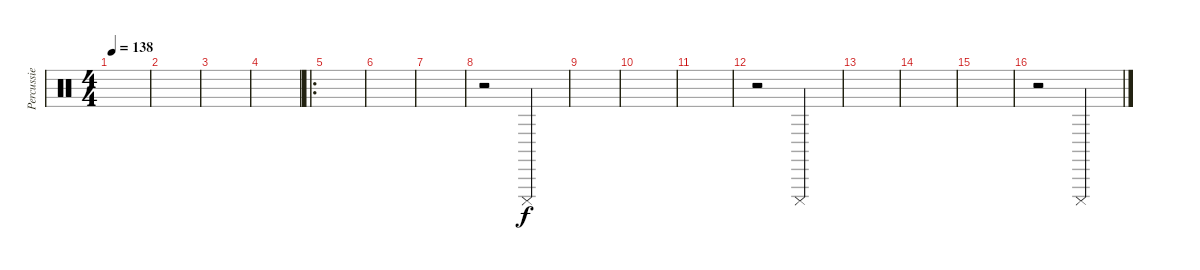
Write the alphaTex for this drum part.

\track ("Percussie" "Percussie") {instrument percussion}
\staff {score}
\articulation defaults
\ts (4 4)
\tempo 138
\clef neutral
\ks c
|
|
|
|
\ro
|
|
|
r.2 "Cuica (mute)".2 |
|
|
|
r.2 "Cuica (mute)".2 |
|
|
|
r.2 "Cuica (mute)".2
